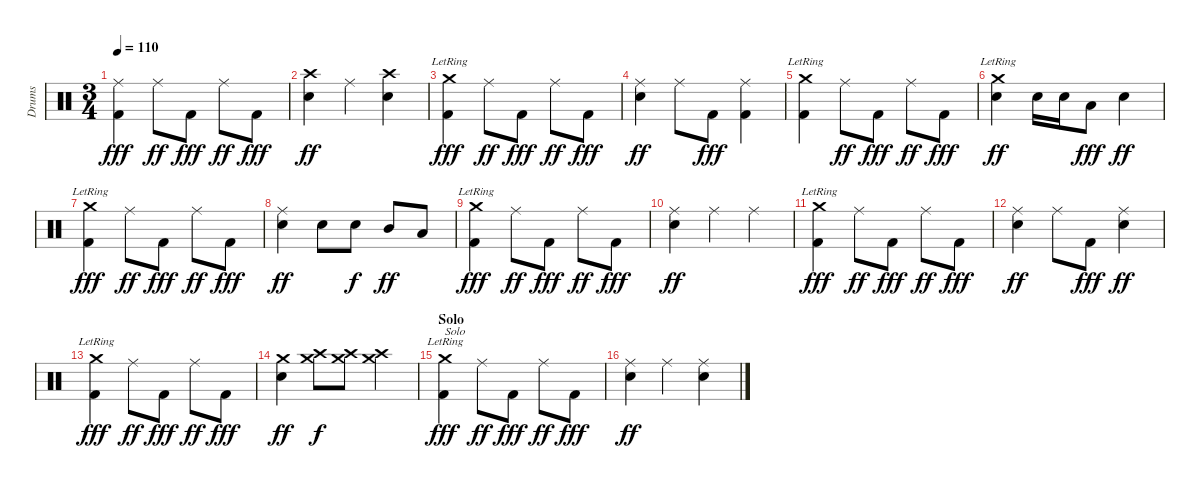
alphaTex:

\track ("Drums" "Drums") {instrument percussion}
\staff {score}
\articulation defaults
\ts (3 4)
\tempo 110
\clef neutral
\ks c
("Ride (middle)" "Kick (hit) 2").4{dy fff} "Ride (middle)".8{dy ff} "Kick (hit) 2".8{dy fff} "Ride (middle)".8{dy ff} "Kick (hit) 2".8{dy fff} |
("Crash high (hit)" "Snare (hit) 2").4{dy ff} "Ride (middle)".4 ("Crash high (hit)" "Snare (hit) 2").4 |
("Crash medium (hit)"{lr} "Kick (hit) 2").4{dy fff} "Ride (middle)".8{dy ff} "Kick (hit) 2".8{dy fff} "Ride (middle)".8{dy ff} "Kick (hit) 2".8{dy fff} |
("Ride (middle)" "Snare (hit) 2").4{dy ff} "Ride (middle)".8 "Kick (hit) 2".8{dy fff} ("Ride (middle)" "Kick (hit) 2").4 |
("Crash medium (hit)"{lr} "Kick (hit) 2").4 "Ride (middle)".8{dy ff} "Kick (hit) 2".8{dy fff} "Ride (middle)".8{dy ff} "Kick (hit) 2".8{dy fff} |
("Crash medium (hit)"{lr} "Snare (hit) 2").4{dy ff} "Snare (hit) 2".16 "Snare (hit) 2".16 "Low Tom (hit)".8{dy fff} "Snare (hit) 2".4{dy ff} |
("Crash medium (hit)"{lr} "Kick (hit) 2").4{dy fff} "Ride (middle)".8{dy ff} "Kick (hit) 2".8{dy fff} "Ride (middle)".8{dy ff} "Kick (hit) 2".8{dy fff} |
("Ride (middle)" "Snare (hit) 2").4{dy ff} "Snare (hit) 2".8 "Snare (hit) 2".8{dy f} "Mid Tom (hit)".8{dy ff} "Low Tom (hit)".8 |
("Crash medium (hit)"{lr} "Kick (hit) 2").4{dy fff} "Ride (middle)".8{dy ff} "Kick (hit) 2".8{dy fff} "Ride (middle)".8{dy ff} "Kick (hit) 2".8{dy fff} |
("Ride (middle)" "Snare (hit) 2").4{dy ff} "Ride (middle)".4 "Ride (middle)".4 |
("Crash medium (hit)"{lr} "Kick (hit) 2").4{dy fff} "Ride (middle)".8{dy ff} "Kick (hit) 2".8{dy fff} "Ride (middle)".8{dy ff} "Kick (hit) 2".8{dy fff} |
("Ride (middle)" "Snare (hit) 2").4{dy ff} "Ride (middle)".8 "Kick (hit) 2".8{dy fff} ("Ride (middle)" "Snare (hit) 2").4{dy ff} |
("Crash medium (hit)"{lr} "Kick (hit) 2").4{dy fff} "Ride (middle)".8{dy ff} "Kick (hit) 2".8{dy fff} "Ride (middle)".8{dy ff} "Kick (hit) 2".8{dy fff} |
("Crash medium (hit)" "Snare (hit) 2").4{dy ff} ("Crash medium (hit)" "Crash high (hit)").8{dy f} ("Crash medium (hit)" "Crash high (hit)").8 ("Crash medium (hit)" "Crash high (hit)").4 |
\section ("" "Solo")
("Crash medium (hit)"{lr} "Kick (hit) 2").4{txt "Solo" dy fff} "Ride (middle)".8{dy ff} "Kick (hit) 2".8{dy fff} "Ride (middle)".8{dy ff} "Kick (hit) 2".8{dy fff} |
("Ride (middle)" "Snare (hit) 2").4{dy ff} "Ride (middle)".4 ("Ride (middle)" "Snare (hit) 2").4
